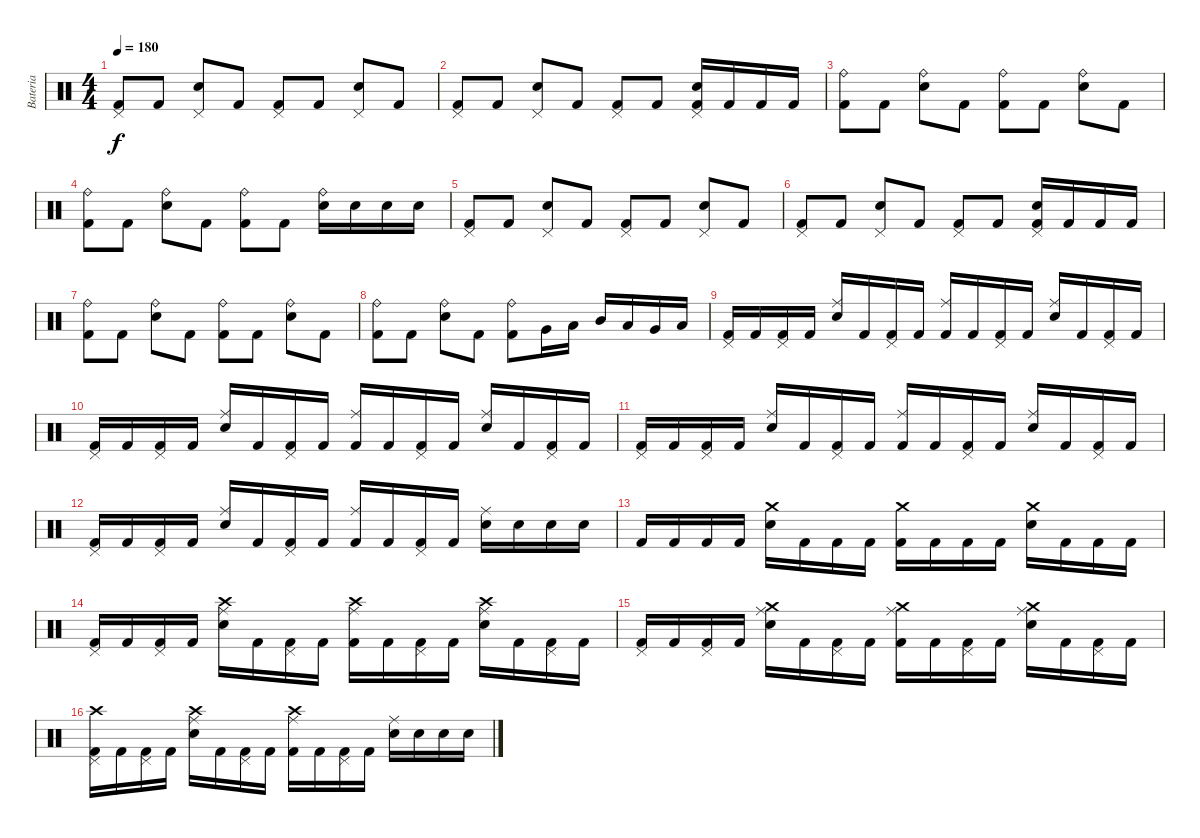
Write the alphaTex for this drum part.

\track ("Bateria" "Bateria") {instrument percussion}
\staff {score}
\articulation defaults
\ts (4 4)
\tempo 180
\clef neutral
\ks c
("Kick (hit) 2" "Pedal Hi-Hat (hit)").8{dy f} "Kick (hit) 2".8 ("Electric Snare (hit)" "Pedal Hi-Hat (hit)").8 "Kick (hit) 2".8 ("Kick (hit) 2" "Pedal Hi-Hat (hit)").8 "Kick (hit) 2".8 ("Electric Snare (hit)" "Pedal Hi-Hat (hit)").8 "Kick (hit) 2".8 |
("Kick (hit) 2" "Pedal Hi-Hat (hit)").8 "Kick (hit) 2".8 ("Electric Snare (hit)" "Pedal Hi-Hat (hit)").8 "Kick (hit) 2".8 ("Kick (hit) 2" "Pedal Hi-Hat (hit)").8 "Kick (hit) 2".8 ("Kick (hit) 2" "Electric Snare (hit)" "Pedal Hi-Hat (hit)").16 "Kick (hit) 2".16 "Kick (hit) 2".16 "Kick (hit) 2".16 |
("Kick (hit) 2" "Ride (bell)").8 "Kick (hit) 2".8 ("Electric Snare (hit)" "Ride (bell)").8 "Kick (hit) 2".8 ("Kick (hit) 2" "Ride (bell)").8 "Kick (hit) 2".8 ("Electric Snare (hit)" "Ride (bell)").8 "Kick (hit) 2".8 |
("Kick (hit) 2" "Ride (bell)").8 "Kick (hit) 2".8 ("Electric Snare (hit)" "Ride (bell)").8 "Kick (hit) 2".8 ("Kick (hit) 2" "Ride (bell)").8 "Kick (hit) 2".8 ("Electric Snare (hit)" "Ride (bell)").16 "Electric Snare (hit)".16 "Electric Snare (hit)".16 "Electric Snare (hit)".16 |
("Kick (hit) 2" "Pedal Hi-Hat (hit)").8 "Kick (hit) 2".8 ("Electric Snare (hit)" "Pedal Hi-Hat (hit)").8 "Kick (hit) 2".8 ("Kick (hit) 2" "Pedal Hi-Hat (hit)").8 "Kick (hit) 2".8 ("Electric Snare (hit)" "Pedal Hi-Hat (hit)").8 "Kick (hit) 2".8 |
("Kick (hit) 2" "Pedal Hi-Hat (hit)").8 "Kick (hit) 2".8 ("Electric Snare (hit)" "Pedal Hi-Hat (hit)").8 "Kick (hit) 2".8 ("Kick (hit) 2" "Pedal Hi-Hat (hit)").8 "Kick (hit) 2".8 ("Kick (hit) 2" "Electric Snare (hit)" "Pedal Hi-Hat (hit)").16 "Kick (hit) 2".16 "Kick (hit) 2".16 "Kick (hit) 2".16 |
("Kick (hit) 2" "Ride (bell)").8 "Kick (hit) 2".8 ("Electric Snare (hit)" "Ride (bell)").8 "Kick (hit) 2".8 ("Kick (hit) 2" "Ride (bell)").8 "Kick (hit) 2".8 ("Electric Snare (hit)" "Ride (bell)").8 "Kick (hit) 2".8 |
("Kick (hit) 2" "Ride (bell)").8 "Kick (hit) 2".8 ("Electric Snare (hit)" "Ride (bell)").8 "Kick (hit) 2".8 ("Kick (hit) 2" "Ride (bell)").8 "Very Low Tom (hit)".16 "Low Floor Tom (hit)".16 "Mid Tom (hit)".16 "Low Tom (hit)".16 "Very Low Tom (hit)".16 "Low Floor Tom (hit)".16 |
("Kick (hit) 2" "Pedal Hi-Hat (hit)").16 "Kick (hit) 2".16 ("Kick (hit) 2" "Pedal Hi-Hat (hit)").16 "Kick (hit) 2".16 ("Electric Snare (hit)" "Ride (middle)").16 "Kick (hit) 2".16 ("Kick (hit) 2" "Pedal Hi-Hat (hit)").16 "Kick (hit) 2".16 ("Kick (hit) 2" "Ride (middle)").16 "Kick (hit) 2".16 ("Kick (hit) 2" "Pedal Hi-Hat (hit)").16 "Kick (hit) 2".16 ("Electric Snare (hit)" "Ride (middle)").16 "Kick (hit) 2".16 ("Kick (hit) 2" "Pedal Hi-Hat (hit)").16 "Kick (hit) 2".16 |
("Kick (hit) 2" "Pedal Hi-Hat (hit)").16 "Kick (hit) 2".16 ("Kick (hit) 2" "Pedal Hi-Hat (hit)").16 "Kick (hit) 2".16 ("Electric Snare (hit)" "Ride (middle)").16 "Kick (hit) 2".16 ("Kick (hit) 2" "Pedal Hi-Hat (hit)").16 "Kick (hit) 2".16 ("Kick (hit) 2" "Ride (middle)").16 "Kick (hit) 2".16 ("Kick (hit) 2" "Pedal Hi-Hat (hit)").16 "Kick (hit) 2".16 ("Electric Snare (hit)" "Ride (middle)").16 "Kick (hit) 2".16 ("Kick (hit) 2" "Pedal Hi-Hat (hit)").16 "Kick (hit) 2".16 |
("Kick (hit) 2" "Pedal Hi-Hat (hit)").16 "Kick (hit) 2".16 ("Kick (hit) 2" "Pedal Hi-Hat (hit)").16 "Kick (hit) 2".16 ("Electric Snare (hit)" "Ride (middle)").16 "Kick (hit) 2".16 ("Kick (hit) 2" "Pedal Hi-Hat (hit)").16 "Kick (hit) 2".16 ("Kick (hit) 2" "Ride (middle)").16 "Kick (hit) 2".16 ("Kick (hit) 2" "Pedal Hi-Hat (hit)").16 "Kick (hit) 2".16 ("Electric Snare (hit)" "Ride (middle)").16 "Kick (hit) 2".16 ("Kick (hit) 2" "Pedal Hi-Hat (hit)").16 "Kick (hit) 2".16 |
("Kick (hit) 2" "Pedal Hi-Hat (hit)").16 "Kick (hit) 2".16 ("Kick (hit) 2" "Pedal Hi-Hat (hit)").16 "Kick (hit) 2".16 ("Electric Snare (hit)" "Ride (middle)").16 "Kick (hit) 2".16 ("Kick (hit) 2" "Pedal Hi-Hat (hit)").16 "Kick (hit) 2".16 ("Kick (hit) 2" "Ride (middle)").16 "Kick (hit) 2".16 ("Kick (hit) 2" "Pedal Hi-Hat (hit)").16 "Kick (hit) 2".16 ("Electric Snare (hit)" "Ride (middle)").16 "Electric Snare (hit)".16 "Electric Snare (hit)".16 "Electric Snare (hit)".16 |
"Kick (hit) 2".16 "Kick (hit) 2".16 "Kick (hit) 2".16 "Kick (hit) 2".16 ("Electric Snare (hit)" "Crash medium (hit)").16 "Kick (hit) 2".16 "Kick (hit) 2".16 "Kick (hit) 2".16 ("Kick (hit) 2" "Crash medium (hit)").16 "Kick (hit) 2".16 "Kick (hit) 2".16 "Kick (hit) 2".16 ("Electric Snare (hit)" "Crash medium (hit)").16 "Kick (hit) 2".16 "Kick (hit) 2".16 "Kick (hit) 2".16 |
("Kick (hit) 2" "Pedal Hi-Hat (hit)").16 "Kick (hit) 2".16 ("Kick (hit) 2" "Pedal Hi-Hat (hit)").16 "Kick (hit) 2".16 ("Electric Snare (hit)" "Ride (middle)" "Crash high (hit)").16 "Kick (hit) 2".16 ("Kick (hit) 2" "Pedal Hi-Hat (hit)").16 "Kick (hit) 2".16 ("Kick (hit) 2" "Ride (middle)" "Crash high (hit)").16 "Kick (hit) 2".16 ("Kick (hit) 2" "Pedal Hi-Hat (hit)").16 "Kick (hit) 2".16 ("Electric Snare (hit)" "Ride (middle)" "Crash high (hit)").16 "Kick (hit) 2".16 ("Kick (hit) 2" "Pedal Hi-Hat (hit)").16 "Kick (hit) 2".16 |
("Kick (hit) 2" "Pedal Hi-Hat (hit)").16 "Kick (hit) 2".16 ("Kick (hit) 2" "Pedal Hi-Hat (hit)").16 "Kick (hit) 2".16 ("Electric Snare (hit)" "Ride (middle)" "Crash medium (hit)").16 "Kick (hit) 2".16 ("Kick (hit) 2" "Pedal Hi-Hat (hit)").16 "Kick (hit) 2".16 ("Kick (hit) 2" "Ride (middle)" "Crash medium (hit)").16 "Kick (hit) 2".16 ("Kick (hit) 2" "Pedal Hi-Hat (hit)").16 "Kick (hit) 2".16 ("Electric Snare (hit)" "Ride (middle)" "Crash medium (hit)").16 "Kick (hit) 2".16 ("Kick (hit) 2" "Pedal Hi-Hat (hit)").16 "Kick (hit) 2".16 |
("Kick (hit) 2" "Pedal Hi-Hat (hit)" "Crash high (hit)").16 "Kick (hit) 2".16 ("Kick (hit) 2" "Pedal Hi-Hat (hit)").16 "Kick (hit) 2".16 ("Electric Snare (hit)" "Ride (middle)" "Crash high (hit)").16 "Kick (hit) 2".16 ("Kick (hit) 2" "Pedal Hi-Hat (hit)").16 "Kick (hit) 2".16 ("Kick (hit) 2" "Ride (middle)" "Crash high (hit)").16 "Kick (hit) 2".16 ("Kick (hit) 2" "Pedal Hi-Hat (hit)").16 "Kick (hit) 2".16 ("Electric Snare (hit)" "Ride (middle)").16 "Electric Snare (hit)".16 "Electric Snare (hit)".16 "Electric Snare (hit)".16
